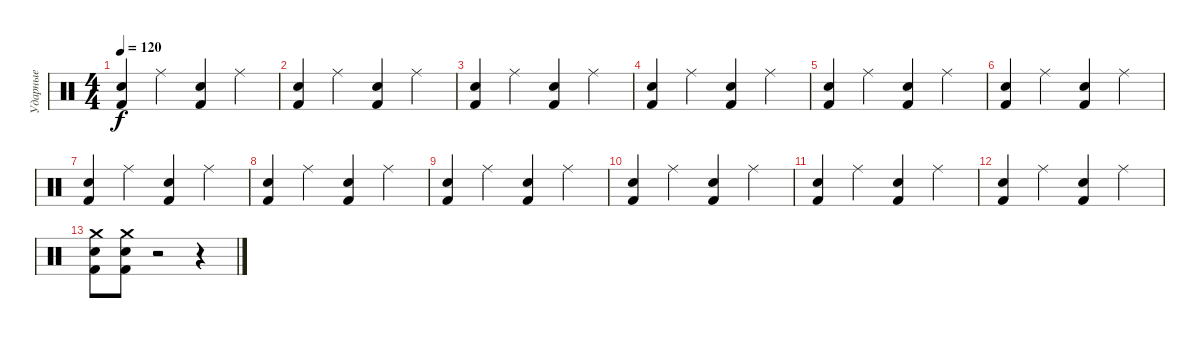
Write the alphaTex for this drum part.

\track ("Ударные" "Ударные") {instrument percussion}
\staff {score}
\articulation defaults
\ts (4 4)
\tempo 120
\clef neutral
\ks c
("Snare (hit) 2" "Kick (hit) 2").4{dy f} "Ride (middle)".4 ("Snare (hit) 2" "Kick (hit) 2").4 "Ride (middle)".4 |
("Snare (hit) 2" "Kick (hit) 2").4 "Ride (middle)".4 ("Snare (hit) 2" "Kick (hit) 2").4 "Ride (middle)".4 |
("Snare (hit) 2" "Kick (hit) 2").4 "Ride (middle)".4 ("Snare (hit) 2" "Kick (hit) 2").4 "Ride (middle)".4 |
("Snare (hit) 2" "Kick (hit) 2").4 "Ride (middle)".4 ("Snare (hit) 2" "Kick (hit) 2").4 "Ride (middle)".4 |
("Snare (hit) 2" "Kick (hit) 2").4 "Ride (middle)".4 ("Snare (hit) 2" "Kick (hit) 2").4 "Ride (middle)".4 |
("Snare (hit) 2" "Kick (hit) 2").4 "Ride (middle)".4 ("Snare (hit) 2" "Kick (hit) 2").4 "Ride (middle)".4 |
("Snare (hit) 2" "Kick (hit) 2").4 "Ride (middle)".4 ("Snare (hit) 2" "Kick (hit) 2").4 "Ride (middle)".4 |
("Snare (hit) 2" "Kick (hit) 2").4 "Ride (middle)".4 ("Snare (hit) 2" "Kick (hit) 2").4 "Ride (middle)".4 |
("Snare (hit) 2" "Kick (hit) 2").4 "Ride (middle)".4 ("Snare (hit) 2" "Kick (hit) 2").4 "Ride (middle)".4 |
("Snare (hit) 2" "Kick (hit) 2").4 "Ride (middle)".4 ("Snare (hit) 2" "Kick (hit) 2").4 "Ride (middle)".4 |
("Snare (hit) 2" "Kick (hit) 2").4 "Ride (middle)".4 ("Snare (hit) 2" "Kick (hit) 2").4 "Ride (middle)".4 |
("Snare (hit) 2" "Kick (hit) 2").4 "Ride (middle)".4 ("Snare (hit) 2" "Kick (hit) 2").4 "Ride (middle)".4 |
("Crash medium (hit)" "Snare (hit) 2" "Kick (hit) 2").8 ("Crash medium (hit)" "Snare (hit) 2" "Kick (hit) 2").8 r.2 r.4
